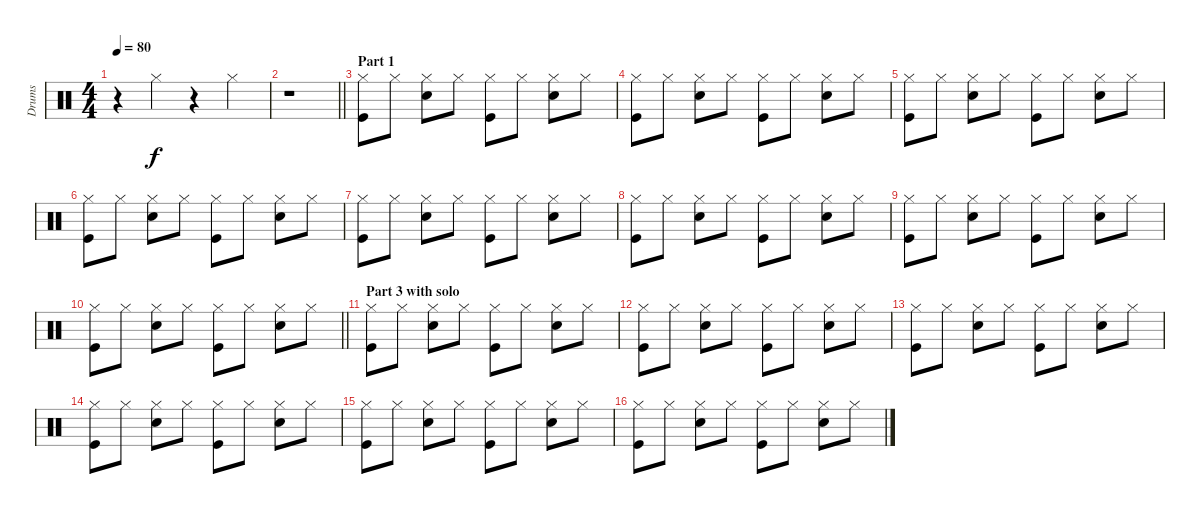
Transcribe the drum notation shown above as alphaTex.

\track ("Drums" "Drums") {instrument percussion}
\staff {score}
\articulation defaults
\ts (4 4)
\tempo 80
\clef neutral
\ks c
r.4{dy f} "Hi-Hat (closed)".4 r.4 "Hi-Hat (closed)".4 |
\barLineRight lightlight
r.1 |
\section ("" "Part 1")
("Hi-Hat (closed)" "Kick (hit)").8 "Hi-Hat (closed)".8 ("Hi-Hat (closed)" "Snare (hit) 2").8 "Hi-Hat (closed)".8 ("Hi-Hat (closed)" "Kick (hit)").8 "Hi-Hat (closed)".8 ("Hi-Hat (closed)" "Snare (hit) 2").8 "Hi-Hat (closed)".8 |
("Hi-Hat (closed)" "Kick (hit)").8 "Hi-Hat (closed)".8 ("Hi-Hat (closed)" "Snare (hit) 2").8 "Hi-Hat (closed)".8 ("Hi-Hat (closed)" "Kick (hit)").8 "Hi-Hat (closed)".8 ("Hi-Hat (closed)" "Snare (hit) 2").8 "Hi-Hat (closed)".8 |
("Hi-Hat (closed)" "Kick (hit)").8 "Hi-Hat (closed)".8 ("Hi-Hat (closed)" "Snare (hit) 2").8 "Hi-Hat (closed)".8 ("Hi-Hat (closed)" "Kick (hit)").8 "Hi-Hat (closed)".8 ("Hi-Hat (closed)" "Snare (hit) 2").8 "Hi-Hat (closed)".8 |
("Hi-Hat (closed)" "Kick (hit)").8 "Hi-Hat (closed)".8 ("Hi-Hat (closed)" "Snare (hit) 2").8 "Hi-Hat (closed)".8 ("Hi-Hat (closed)" "Kick (hit)").8 "Hi-Hat (closed)".8 ("Hi-Hat (closed)" "Snare (hit) 2").8 "Hi-Hat (closed)".8 |
("Hi-Hat (closed)" "Kick (hit)").8 "Hi-Hat (closed)".8 ("Hi-Hat (closed)" "Snare (hit) 2").8 "Hi-Hat (closed)".8 ("Hi-Hat (closed)" "Kick (hit)").8 "Hi-Hat (closed)".8 ("Hi-Hat (closed)" "Snare (hit) 2").8 "Hi-Hat (closed)".8 |
("Hi-Hat (closed)" "Kick (hit)").8 "Hi-Hat (closed)".8 ("Hi-Hat (closed)" "Snare (hit) 2").8 "Hi-Hat (closed)".8 ("Hi-Hat (closed)" "Kick (hit)").8 "Hi-Hat (closed)".8 ("Hi-Hat (closed)" "Snare (hit) 2").8 "Hi-Hat (closed)".8 |
("Hi-Hat (closed)" "Kick (hit)").8 "Hi-Hat (closed)".8 ("Hi-Hat (closed)" "Snare (hit) 2").8 "Hi-Hat (closed)".8 ("Hi-Hat (closed)" "Kick (hit)").8 "Hi-Hat (closed)".8 ("Hi-Hat (closed)" "Snare (hit) 2").8 "Hi-Hat (closed)".8 |
\barLineRight lightlight
("Hi-Hat (closed)" "Kick (hit)").8 "Hi-Hat (closed)".8 ("Hi-Hat (closed)" "Snare (hit) 2").8 "Hi-Hat (closed)".8 ("Hi-Hat (closed)" "Kick (hit)").8 "Hi-Hat (closed)".8 ("Hi-Hat (closed)" "Snare (hit) 2").8 "Hi-Hat (closed)".8 |
\section ("" "Part 3 with solo")
("Hi-Hat (closed)" "Kick (hit)").8 "Hi-Hat (closed)".8 ("Hi-Hat (closed)" "Snare (hit) 2").8 "Hi-Hat (closed)".8 ("Hi-Hat (closed)" "Kick (hit)").8 "Hi-Hat (closed)".8 ("Hi-Hat (closed)" "Snare (hit) 2").8 "Hi-Hat (closed)".8 |
("Hi-Hat (closed)" "Kick (hit)").8 "Hi-Hat (closed)".8 ("Hi-Hat (closed)" "Snare (hit) 2").8 "Hi-Hat (closed)".8 ("Hi-Hat (closed)" "Kick (hit)").8 "Hi-Hat (closed)".8 ("Hi-Hat (closed)" "Snare (hit) 2").8 "Hi-Hat (closed)".8 |
("Hi-Hat (closed)" "Kick (hit)").8 "Hi-Hat (closed)".8 ("Hi-Hat (closed)" "Snare (hit) 2").8 "Hi-Hat (closed)".8 ("Hi-Hat (closed)" "Kick (hit)").8 "Hi-Hat (closed)".8 ("Hi-Hat (closed)" "Snare (hit) 2").8 "Hi-Hat (closed)".8 |
("Hi-Hat (closed)" "Kick (hit)").8 "Hi-Hat (closed)".8 ("Hi-Hat (closed)" "Snare (hit) 2").8 "Hi-Hat (closed)".8 ("Hi-Hat (closed)" "Kick (hit)").8 "Hi-Hat (closed)".8 ("Hi-Hat (closed)" "Snare (hit) 2").8 "Hi-Hat (closed)".8 |
("Hi-Hat (closed)" "Kick (hit)").8 "Hi-Hat (closed)".8 ("Hi-Hat (closed)" "Snare (hit) 2").8 "Hi-Hat (closed)".8 ("Hi-Hat (closed)" "Kick (hit)").8 "Hi-Hat (closed)".8 ("Hi-Hat (closed)" "Snare (hit) 2").8 "Hi-Hat (closed)".8 |
("Hi-Hat (closed)" "Kick (hit)").8 "Hi-Hat (closed)".8 ("Hi-Hat (closed)" "Snare (hit) 2").8 "Hi-Hat (closed)".8 ("Hi-Hat (closed)" "Kick (hit)").8 "Hi-Hat (closed)".8 ("Hi-Hat (closed)" "Snare (hit) 2").8 "Hi-Hat (closed)".8
